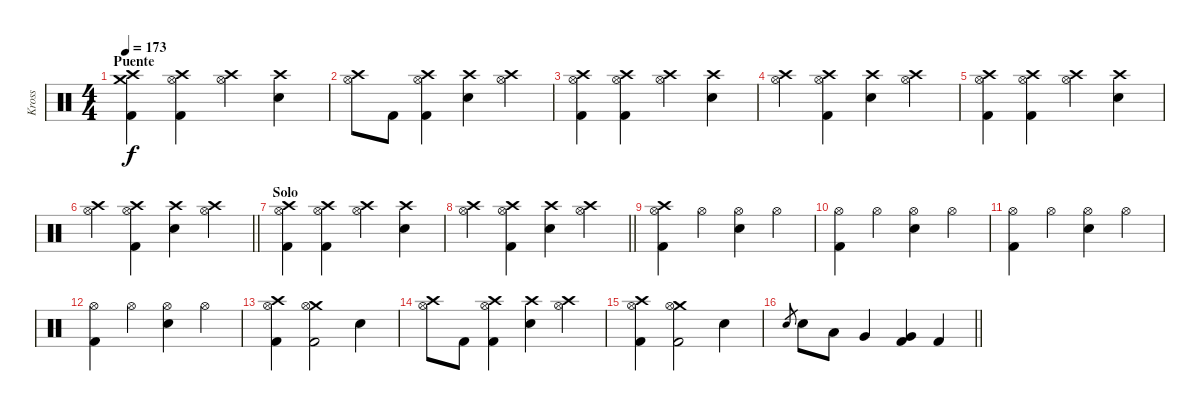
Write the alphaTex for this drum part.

\track ("Kross" "Kross") {instrument percussion}
\staff {score}
\articulation defaults
\ts (4 4)
\section ("" "Puente")
\tempo 173
\clef neutral
\ks c
("Crash medium (hit)" "Crash high (hit)" "Kick (hit) 2").4{dy f} ("Crash high (hit)" "Hi-Hat (open)" "Kick (hit) 2").4 ("Crash high (hit)" "Hi-Hat (open)").4 ("Crash high (hit)" "Electric Snare (hit)").4 |
("Crash high (hit)" "Hi-Hat (open)").8 "Kick (hit) 2".8 ("Crash high (hit)" "Hi-Hat (open)" "Kick (hit) 2").4 ("Crash high (hit)" "Electric Snare (hit)").4 ("Crash high (hit)" "Hi-Hat (open)").4 |
("Crash high (hit)" "Hi-Hat (open)" "Kick (hit) 2").4 ("Crash high (hit)" "Hi-Hat (open)" "Kick (hit) 2").4 ("Crash high (hit)" "Hi-Hat (open)").4 ("Crash high (hit)" "Electric Snare (hit)").4 |
("Crash high (hit)" "Hi-Hat (open)").4 ("Crash high (hit)" "Hi-Hat (open)" "Kick (hit) 2").4 ("Crash high (hit)" "Electric Snare (hit)").4 ("Crash high (hit)" "Hi-Hat (open)").4 |
("Crash high (hit)" "Hi-Hat (open)" "Kick (hit) 2").4 ("Crash high (hit)" "Hi-Hat (open)" "Kick (hit) 2").4 ("Crash high (hit)" "Hi-Hat (open)").4 ("Crash high (hit)" "Electric Snare (hit)").4 |
\barLineRight lightlight
("Crash high (hit)" "Hi-Hat (open)").4 ("Crash high (hit)" "Hi-Hat (open)" "Kick (hit) 2").4 ("Crash high (hit)" "Electric Snare (hit)").4 ("Crash high (hit)" "Hi-Hat (open)").4 |
\section ("" "Solo")
("Crash high (hit)" "Hi-Hat (open)" "Kick (hit) 2").4 ("Crash high (hit)" "Hi-Hat (open)" "Kick (hit) 2").4 ("Crash high (hit)" "Hi-Hat (open)").4 ("Crash high (hit)" "Electric Snare (hit)").4 |
\barLineRight lightlight
("Crash high (hit)" "Hi-Hat (open)").4 ("Crash high (hit)" "Hi-Hat (open)" "Kick (hit) 2").4 ("Crash high (hit)" "Electric Snare (hit)").4 ("Crash high (hit)" "Hi-Hat (open)").4 |
("Crash high (hit)" "Hi-Hat (open)" "Kick (hit) 2").4 "Hi-Hat (open)".4 ("Hi-Hat (open)" "Electric Snare (hit)").4 "Hi-Hat (open)".4 |
("Hi-Hat (open)" "Kick (hit) 2").4 "Hi-Hat (open)".4 ("Hi-Hat (open)" "Electric Snare (hit)").4 "Hi-Hat (open)".4 |
("Hi-Hat (open)" "Kick (hit) 2").4 "Hi-Hat (open)".4 ("Hi-Hat (open)" "Electric Snare (hit)").4 "Hi-Hat (open)".4 |
("Hi-Hat (open)" "Kick (hit) 2").4 "Hi-Hat (open)".4 ("Hi-Hat (open)" "Electric Snare (hit)").4 "Hi-Hat (open)".4 |
("Crash high (hit)" "Hi-Hat (open)" "Kick (hit) 2").4 ("Crash medium (hit)" "Hi-Hat (open)" "Kick (hit) 2").2 "Electric Snare (hit)".4 |
("Crash high (hit)" "Hi-Hat (open)").8 "Kick (hit) 2".8 ("Crash high (hit)" "Hi-Hat (open)" "Kick (hit) 2").4 ("Crash high (hit)" "Electric Snare (hit)").4 ("Crash high (hit)" "Hi-Hat (open)").4 |
("Crash high (hit)" "Hi-Hat (open)" "Kick (hit) 2").4 ("Crash medium (hit)" "Hi-Hat (open)" "Kick (hit) 2").2 "Electric Snare (hit)".4 |
\barLineRight lightlight "Electric Snare (hit)".8{gr} "Electric Snare (hit)".8 "Low Tom (hit)".8 "Very Low Tom (hit)".4
("Very Low Tom (hit)" "Kick (hit) 2").4 "Kick (hit) 2".4
